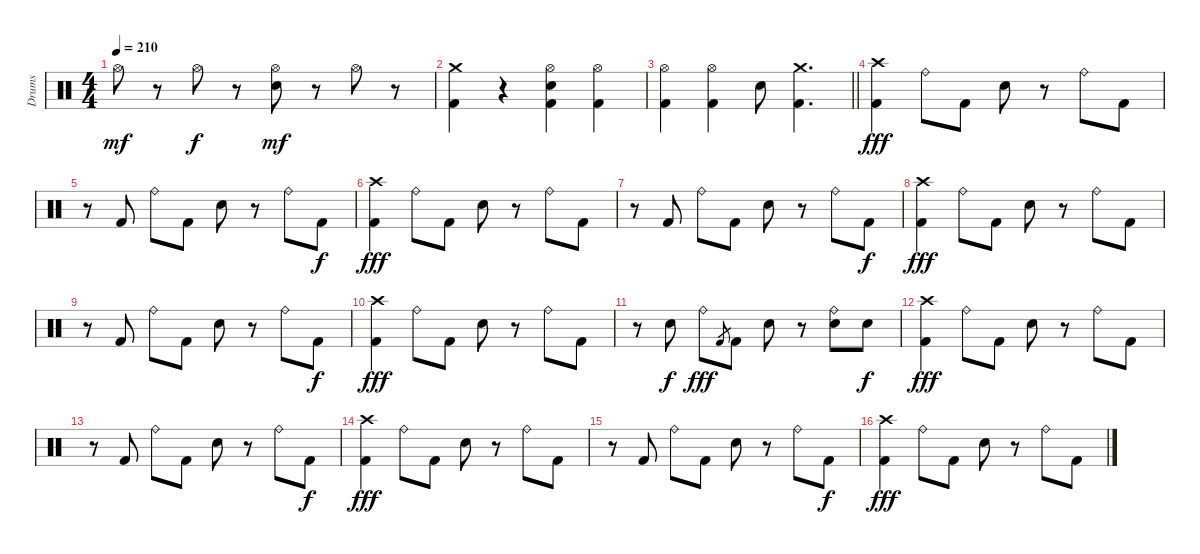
\track ("Drums" "Drums") {instrument percussion}
\staff {score}
\articulation defaults
\ts (4 4)
\tempo 210
\clef neutral
\ks c "Hi-Hat (open)".8{dy mf}
r.8 "Hi-Hat (open)".8{dy f} r.8 ("Hi-Hat (open)" "Electric Snare (hit)").8{dy mf} r.8 "Hi-Hat (open)".8 r.8 |
("Crash medium (hit)" "Kick (hit) 2").4 r.4 ("Hi-Hat (open)" "Electric Snare (hit)" "Kick (hit) 2").4 ("Hi-Hat (open)" "Kick (hit) 2").4 |
\barLineRight lightlight
("Hi-Hat (open)" "Kick (hit) 2").4 ("Hi-Hat (open)" "Kick (hit) 2").4 "Electric Snare (hit)".8 ("Crash medium (hit)" "Kick (hit) 2").4{d} |
("Crash high (hit)" "Kick (hit) 2").4{dy fff} "Ride (bell)".8 "Kick (hit) 2".8 "Electric Snare (hit)".8 r.8 "Ride (bell)".8 "Kick (hit) 2".8 |
r.8 "Kick (hit) 2".8 "Ride (bell)".8 "Kick (hit) 2".8 "Electric Snare (hit)".8 r.8 "Ride (bell)".8 "Kick (hit) 2".8{dy f} |
("Crash high (hit)" "Kick (hit) 2").4{dy fff} "Ride (bell)".8 "Kick (hit) 2".8 "Electric Snare (hit)".8 r.8 "Ride (bell)".8 "Kick (hit) 2".8 |
r.8 "Kick (hit) 2".8 "Ride (bell)".8 "Kick (hit) 2".8 "Electric Snare (hit)".8 r.8 "Ride (bell)".8 "Kick (hit) 2".8{dy f} |
("Crash high (hit)" "Kick (hit) 2").4{dy fff} "Ride (bell)".8 "Kick (hit) 2".8 "Electric Snare (hit)".8 r.8 "Ride (bell)".8 "Kick (hit) 2".8 |
r.8 "Kick (hit) 2".8 "Ride (bell)".8 "Kick (hit) 2".8 "Electric Snare (hit)".8 r.8 "Ride (bell)".8 "Kick (hit) 2".8{dy f} |
("Crash high (hit)" "Kick (hit) 2").4{dy fff} "Ride (bell)".8 "Kick (hit) 2".8 "Electric Snare (hit)".8 r.8 "Ride (bell)".8 "Kick (hit) 2".8 |
r.8 "Electric Snare (hit)".8{dy f} "Ride (bell)".8{dy fff} "Kick (hit) 2".8{gr} "Kick (hit) 2".8 "Electric Snare (hit)".8 r.8 ("Ride (bell)" "Electric Snare (hit)").8 "Electric Snare (hit)".8{dy f} |
("Crash high (hit)" "Kick (hit) 2").4{dy fff} "Ride (bell)".8 "Kick (hit) 2".8 "Electric Snare (hit)".8 r.8 "Ride (bell)".8 "Kick (hit) 2".8 |
r.8 "Kick (hit) 2".8 "Ride (bell)".8 "Kick (hit) 2".8 "Electric Snare (hit)".8 r.8 "Ride (bell)".8 "Kick (hit) 2".8{dy f} |
("Crash high (hit)" "Kick (hit) 2").4{dy fff} "Ride (bell)".8 "Kick (hit) 2".8 "Electric Snare (hit)".8 r.8 "Ride (bell)".8 "Kick (hit) 2".8 |
r.8 "Kick (hit) 2".8 "Ride (bell)".8 "Kick (hit) 2".8 "Electric Snare (hit)".8 r.8 "Ride (bell)".8 "Kick (hit) 2".8{dy f} |
("Crash high (hit)" "Kick (hit) 2").4{dy fff} "Ride (bell)".8 "Kick (hit) 2".8 "Electric Snare (hit)".8 r.8 "Ride (bell)".8 "Kick (hit) 2".8
